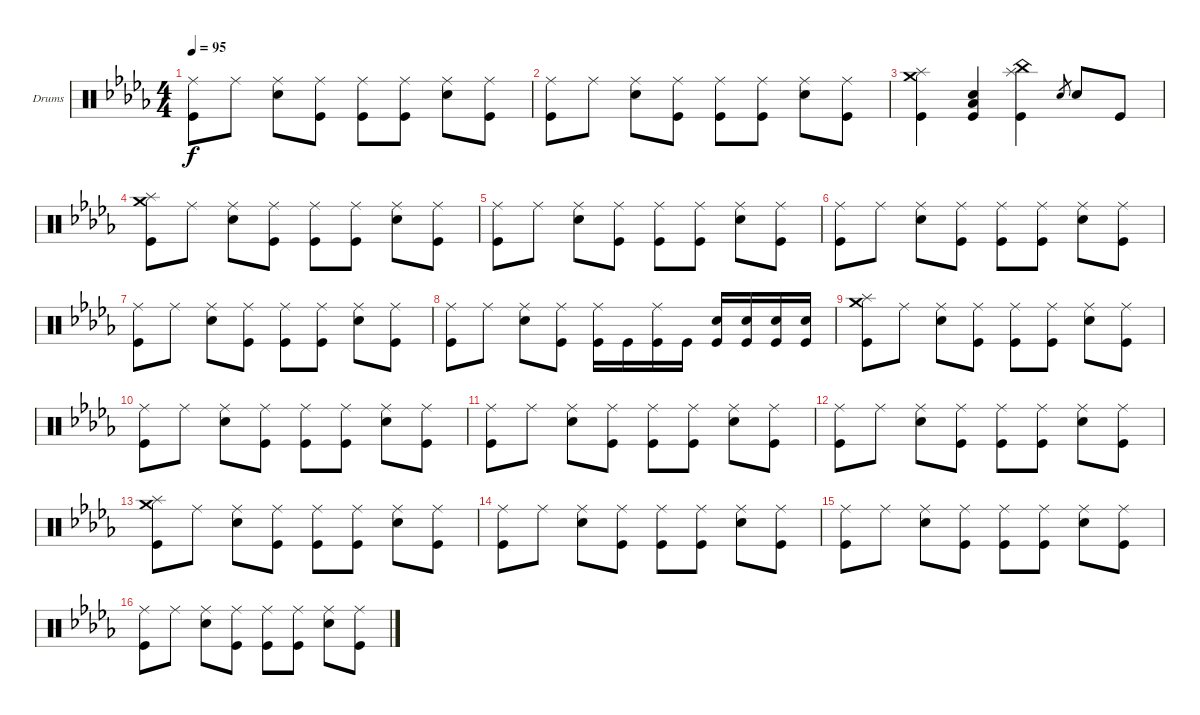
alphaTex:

\bracketExtendMode groupsimilarinstruments
\firstSystemTrackNameOrientation horizontal
\otherSystemsTrackNameOrientation horizontal
\track ("Drumkit" "Drums") {instrument percussion}
\staff {score}
\articulation defaults
\ts (4 4)
\tempo 95
\clef neutral
\scale
0.333333
\ks bbminor
("Kick (hit)" "Ride (middle)").8{dy f} "Ride (middle)".8 ("Ride (middle)" "Snare (hit) 2").8 ("Ride (middle)" "Kick (hit)").8 ("Ride (middle)" "Kick (hit)").8 ("Ride (middle)" "Kick (hit)").8 ("Ride (middle)" "Snare (hit) 2").8 ("Kick (hit)" "Ride (middle)").8 |
\scale
0.333333 ("Kick (hit)" "Ride (middle)").8 "Ride (middle)".8 ("Ride (middle)" "Snare (hit) 2").8 ("Ride (middle)" "Kick (hit)").8 ("Ride (middle)" "Kick (hit)").8 ("Ride (middle)" "Kick (hit)").8 ("Ride (middle)" "Snare (hit) 2").8 ("Kick (hit)" "Ride (middle)").8 |
("Kick (hit)" "Crash medium (hit)" "Splash (hit)").4 ("Kick (hit)" "Snare (hit) 2" "Low Tom (hit)").4 ("Kick (hit)" "China (hit)" "Splash (hit)").4 "Snare (hit) 2".8{gr} "Snare (hit) 2".8 "Kick (hit)".8 |
\scale
0.333333 ("Crash medium (hit)" "Kick (hit)" "Splash (hit)").8 "Ride (middle)".8 ("Ride (middle)" "Snare (hit) 2").8 ("Ride (middle)" "Kick (hit)").8 ("Ride (middle)" "Kick (hit)").8 ("Ride (middle)" "Kick (hit)").8 ("Ride (middle)" "Snare (hit) 2").8 ("Kick (hit)" "Ride (middle)").8 |
("Kick (hit)" "Ride (middle)").8 "Ride (middle)".8 ("Ride (middle)" "Snare (hit) 2").8 ("Ride (middle)" "Kick (hit)").8 ("Ride (middle)" "Kick (hit)").8 ("Ride (middle)" "Kick (hit)").8 ("Ride (middle)" "Snare (hit) 2").8 ("Kick (hit)" "Ride (middle)").8 |
("Kick (hit)" "Ride (middle)").8 "Ride (middle)".8 ("Ride (middle)" "Snare (hit) 2").8 ("Ride (middle)" "Kick (hit)").8 ("Ride (middle)" "Kick (hit)").8 ("Ride (middle)" "Kick (hit)").8 ("Ride (middle)" "Snare (hit) 2").8 ("Kick (hit)" "Ride (middle)").8 |
("Kick (hit)" "Ride (middle)").8 "Ride (middle)".8 ("Ride (middle)" "Snare (hit) 2").8 ("Ride (middle)" "Kick (hit)").8 ("Ride (middle)" "Kick (hit)").8 ("Ride (middle)" "Kick (hit)").8 ("Ride (middle)" "Snare (hit) 2").8 ("Kick (hit)" "Ride (middle)").8 |
("Kick (hit)" "Ride (middle)").8 "Ride (middle)".8 ("Ride (middle)" "Snare (hit) 2").8 ("Ride (middle)" "Kick (hit)").8 ("Kick (hit)" "Ride (middle)").16 "Kick (hit)".16 ("Kick (hit)" "Ride (middle)").16 "Kick (hit)".16 ("Kick (hit)" "Snare (hit) 2").16 ("Kick (hit)" "Snare (hit) 2").16 ("Kick (hit)" "Snare (hit) 2").16 ("Kick (hit)" "Snare (hit) 2").16 |
\scale
0.333333 ("Crash medium (hit)" "Kick (hit)" "Splash (hit)").8 "Ride (middle)".8 ("Ride (middle)" "Snare (hit) 2").8 ("Ride (middle)" "Kick (hit)").8 ("Ride (middle)" "Kick (hit)").8 ("Ride (middle)" "Kick (hit)").8 ("Ride (middle)" "Snare (hit) 2").8 ("Kick (hit)" "Ride (middle)").8 |
\scale
0.333333 ("Kick (hit)" "Ride (middle)").8 "Ride (middle)".8 ("Ride (middle)" "Snare (hit) 2").8 ("Ride (middle)" "Kick (hit)").8 ("Ride (middle)" "Kick (hit)").8 ("Ride (middle)" "Kick (hit)").8 ("Ride (middle)" "Snare (hit) 2").8 ("Kick (hit)" "Ride (middle)").8 |
\scale
0.333333 ("Kick (hit)" "Ride (middle)").8 "Ride (middle)".8 ("Ride (middle)" "Snare (hit) 2").8 ("Ride (middle)" "Kick (hit)").8 ("Ride (middle)" "Kick (hit)").8 ("Ride (middle)" "Kick (hit)").8 ("Ride (middle)" "Snare (hit) 2").8 ("Kick (hit)" "Ride (middle)").8 |
\scale
0.333333 ("Kick (hit)" "Ride (middle)").8 "Ride (middle)".8 ("Ride (middle)" "Snare (hit) 2").8 ("Ride (middle)" "Kick (hit)").8 ("Ride (middle)" "Kick (hit)").8 ("Ride (middle)" "Kick (hit)").8 ("Ride (middle)" "Snare (hit) 2").8 ("Kick (hit)" "Ride (middle)").8 |
\scale
0.333333 ("Crash medium (hit)" "Kick (hit)" "Splash (hit)").8 "Ride (middle)".8 ("Ride (middle)" "Snare (hit) 2").8 ("Ride (middle)" "Kick (hit)").8 ("Ride (middle)" "Kick (hit)").8 ("Ride (middle)" "Kick (hit)").8 ("Ride (middle)" "Snare (hit) 2").8 ("Kick (hit)" "Ride (middle)").8 |
\scale
0.333333 ("Kick (hit)" "Ride (middle)").8 "Ride (middle)".8 ("Ride (middle)" "Snare (hit) 2").8 ("Ride (middle)" "Kick (hit)").8 ("Ride (middle)" "Kick (hit)").8 ("Ride (middle)" "Kick (hit)").8 ("Ride (middle)" "Snare (hit) 2").8 ("Kick (hit)" "Ride (middle)").8 |
\scale
0.333333 ("Kick (hit)" "Ride (middle)").8 "Ride (middle)".8 ("Ride (middle)" "Snare (hit) 2").8 ("Ride (middle)" "Kick (hit)").8 ("Ride (middle)" "Kick (hit)").8 ("Ride (middle)" "Kick (hit)").8 ("Ride (middle)" "Snare (hit) 2").8 ("Kick (hit)" "Ride (middle)").8 |
\scale
0.333333 ("Kick (hit)" "Ride (middle)").8 "Ride (middle)".8 ("Ride (middle)" "Snare (hit) 2").8 ("Ride (middle)" "Kick (hit)").8 ("Ride (middle)" "Kick (hit)").8 ("Ride (middle)" "Kick (hit)").8 ("Ride (middle)" "Snare (hit) 2").8 ("Kick (hit)" "Ride (middle)").8
